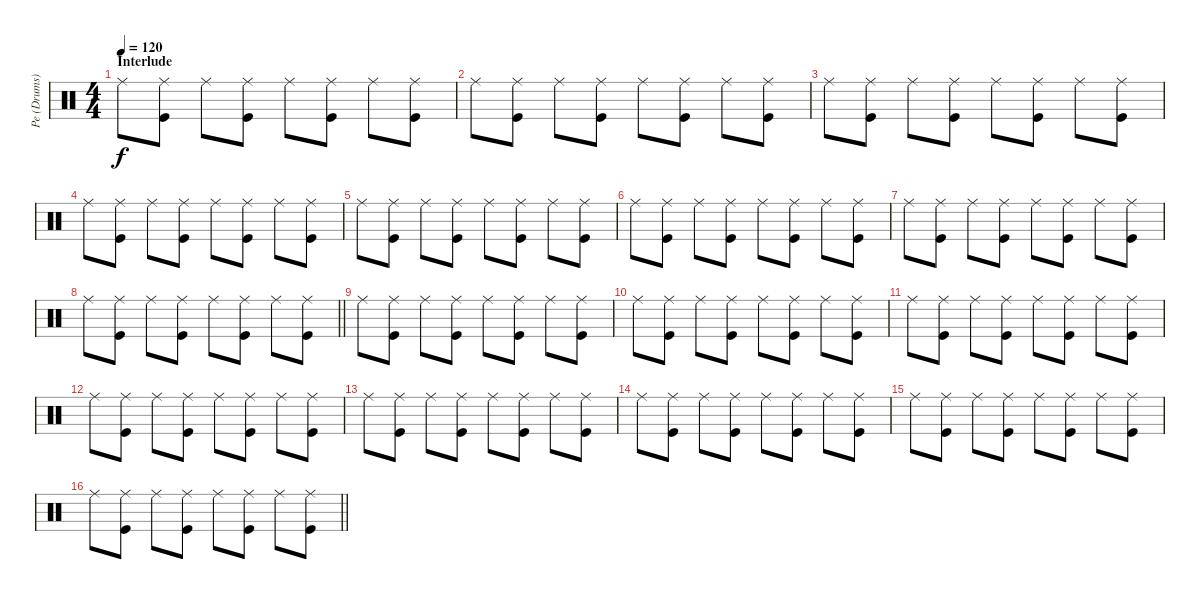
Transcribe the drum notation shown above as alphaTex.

\track ("Pe (Drums)" "Pe (Drums)") {instrument percussion}
\staff {score}
\articulation defaults
\ts (4 4)
\section ("" "Interlude")
\tempo 120
\clef neutral
\ks c "Ride (middle)".8{dy f}
("Ride (middle)" "Kick (hit)").8 "Ride (middle)".8 ("Ride (middle)" "Kick (hit)").8 "Ride (middle)".8 ("Ride (middle)" "Kick (hit)").8 "Ride (middle)".8 ("Ride (middle)" "Kick (hit)").8 |
"Ride (middle)".8 ("Ride (middle)" "Kick (hit)").8 "Ride (middle)".8 ("Ride (middle)" "Kick (hit)").8 "Ride (middle)".8 ("Ride (middle)" "Kick (hit)").8 "Ride (middle)".8 ("Ride (middle)" "Kick (hit)").8 |
"Ride (middle)".8 ("Ride (middle)" "Kick (hit)").8 "Ride (middle)".8 ("Ride (middle)" "Kick (hit)").8 "Ride (middle)".8 ("Ride (middle)" "Kick (hit)").8 "Ride (middle)".8 ("Ride (middle)" "Kick (hit)").8 |
"Ride (middle)".8 ("Ride (middle)" "Kick (hit)").8 "Ride (middle)".8 ("Ride (middle)" "Kick (hit)").8 "Ride (middle)".8 ("Ride (middle)" "Kick (hit)").8 "Ride (middle)".8 ("Ride (middle)" "Kick (hit)").8 |
"Ride (middle)".8 ("Ride (middle)" "Kick (hit)").8 "Ride (middle)".8 ("Ride (middle)" "Kick (hit)").8 "Ride (middle)".8 ("Ride (middle)" "Kick (hit)").8 "Ride (middle)".8 ("Ride (middle)" "Kick (hit)").8 |
"Ride (middle)".8 ("Ride (middle)" "Kick (hit)").8 "Ride (middle)".8 ("Ride (middle)" "Kick (hit)").8 "Ride (middle)".8 ("Ride (middle)" "Kick (hit)").8 "Ride (middle)".8 ("Ride (middle)" "Kick (hit)").8 |
"Ride (middle)".8 ("Ride (middle)" "Kick (hit)").8 "Ride (middle)".8 ("Ride (middle)" "Kick (hit)").8 "Ride (middle)".8 ("Ride (middle)" "Kick (hit)").8 "Ride (middle)".8 ("Ride (middle)" "Kick (hit)").8 |
\barLineRight lightlight "Ride (middle)".8
("Ride (middle)" "Kick (hit)").8 "Ride (middle)".8 ("Ride (middle)" "Kick (hit)").8 "Ride (middle)".8 ("Ride (middle)" "Kick (hit)").8 "Ride (middle)".8 ("Ride (middle)" "Kick (hit)").8 |
"Ride (middle)".8 ("Ride (middle)" "Kick (hit)").8 "Ride (middle)".8 ("Ride (middle)" "Kick (hit)").8 "Ride (middle)".8 ("Ride (middle)" "Kick (hit)").8 "Ride (middle)".8 ("Ride (middle)" "Kick (hit)").8 |
"Ride (middle)".8 ("Ride (middle)" "Kick (hit)").8 "Ride (middle)".8 ("Ride (middle)" "Kick (hit)").8 "Ride (middle)".8 ("Ride (middle)" "Kick (hit)").8 "Ride (middle)".8 ("Ride (middle)" "Kick (hit)").8 |
"Ride (middle)".8 ("Ride (middle)" "Kick (hit)").8 "Ride (middle)".8 ("Ride (middle)" "Kick (hit)").8 "Ride (middle)".8 ("Ride (middle)" "Kick (hit)").8 "Ride (middle)".8 ("Ride (middle)" "Kick (hit)").8 |
"Ride (middle)".8 ("Ride (middle)" "Kick (hit)").8 "Ride (middle)".8 ("Ride (middle)" "Kick (hit)").8 "Ride (middle)".8 ("Ride (middle)" "Kick (hit)").8 "Ride (middle)".8 ("Ride (middle)" "Kick (hit)").8 |
"Ride (middle)".8 ("Ride (middle)" "Kick (hit)").8 "Ride (middle)".8 ("Ride (middle)" "Kick (hit)").8 "Ride (middle)".8 ("Ride (middle)" "Kick (hit)").8 "Ride (middle)".8 ("Ride (middle)" "Kick (hit)").8 |
"Ride (middle)".8 ("Ride (middle)" "Kick (hit)").8 "Ride (middle)".8 ("Ride (middle)" "Kick (hit)").8 "Ride (middle)".8 ("Ride (middle)" "Kick (hit)").8 "Ride (middle)".8 ("Ride (middle)" "Kick (hit)").8 |
"Ride (middle)".8 ("Ride (middle)" "Kick (hit)").8 "Ride (middle)".8 ("Ride (middle)" "Kick (hit)").8 "Ride (middle)".8 ("Ride (middle)" "Kick (hit)").8 "Ride (middle)".8 ("Ride (middle)" "Kick (hit)").8 |
\barLineRight lightlight "Ride (middle)".8
("Ride (middle)" "Kick (hit)").8 "Ride (middle)".8 ("Ride (middle)" "Kick (hit)").8 "Ride (middle)".8 ("Ride (middle)" "Kick (hit)").8 "Ride (middle)".8 ("Ride (middle)" "Kick (hit)").8
